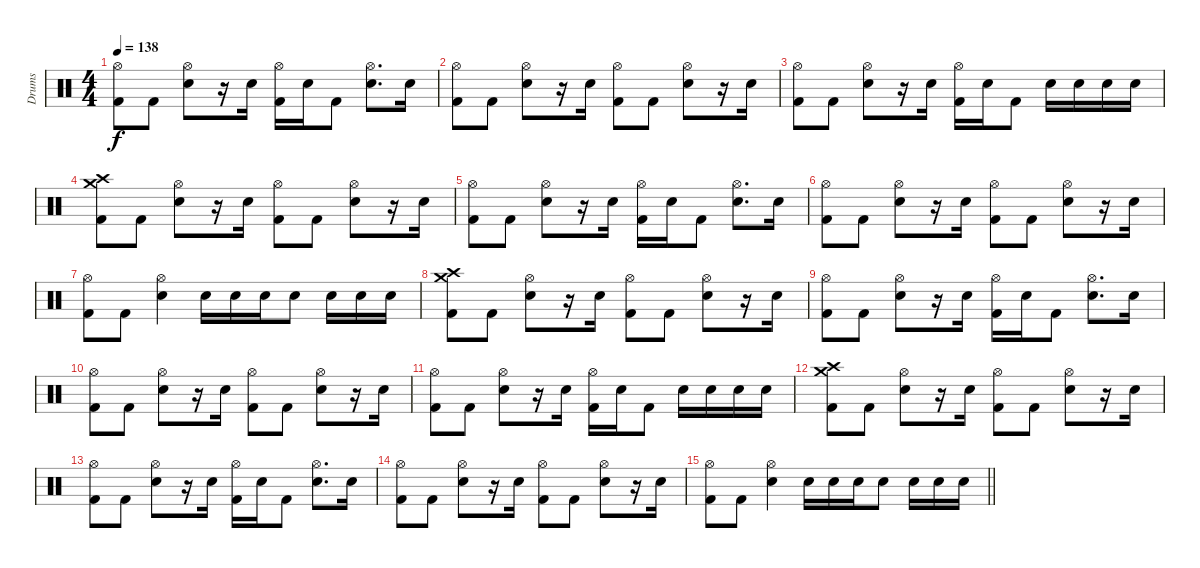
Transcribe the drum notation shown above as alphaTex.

\track ("Drums" "Drums") {instrument percussion}
\staff {score}
\articulation defaults
\ts (4 4)
\tempo 138
\clef neutral
\ks c
("Hi-Hat (open)" "Kick (hit) 2").8{dy f} "Kick (hit) 2".8 ("Hi-Hat (open)" "Electric Snare (hit)").8 r.16 "Electric Snare (hit)".16 ("Hi-Hat (open)" "Kick (hit) 2").16 "Electric Snare (hit)".16 "Kick (hit) 2".8 ("Hi-Hat (open)" "Electric Snare (hit)").8{d} "Electric Snare (hit)".16 |
("Hi-Hat (open)" "Kick (hit) 2").8 "Kick (hit) 2".8 ("Hi-Hat (open)" "Electric Snare (hit)").8 r.16 "Electric Snare (hit)".16 ("Hi-Hat (open)" "Kick (hit) 2").8 "Kick (hit) 2".8 ("Hi-Hat (open)" "Electric Snare (hit)").8 r.16 "Electric Snare (hit)".16 |
("Hi-Hat (open)" "Kick (hit) 2").8 "Kick (hit) 2".8 ("Hi-Hat (open)" "Electric Snare (hit)").8 r.16 "Electric Snare (hit)".16 ("Hi-Hat (open)" "Kick (hit) 2").16 "Electric Snare (hit)".16 "Kick (hit) 2".8 "Electric Snare (hit)".16 "Electric Snare (hit)".16 "Electric Snare (hit)".16 "Electric Snare (hit)".16 |
("Crash high (hit)" "Crash medium (hit)" "Kick (hit) 2").8 "Kick (hit) 2".8 ("Hi-Hat (open)" "Electric Snare (hit)").8 r.16 "Electric Snare (hit)".16 ("Hi-Hat (open)" "Kick (hit) 2").8 "Kick (hit) 2".8 ("Hi-Hat (open)" "Electric Snare (hit)").8 r.16 "Electric Snare (hit)".16 |
("Hi-Hat (open)" "Kick (hit) 2").8 "Kick (hit) 2".8 ("Hi-Hat (open)" "Electric Snare (hit)").8 r.16 "Electric Snare (hit)".16 ("Hi-Hat (open)" "Kick (hit) 2").16 "Electric Snare (hit)".16 "Kick (hit) 2".8 ("Hi-Hat (open)" "Electric Snare (hit)").8{d} "Electric Snare (hit)".16 |
("Hi-Hat (open)" "Kick (hit) 2").8 "Kick (hit) 2".8 ("Hi-Hat (open)" "Electric Snare (hit)").8 r.16 "Electric Snare (hit)".16 ("Hi-Hat (open)" "Kick (hit) 2").8 "Kick (hit) 2".8 ("Hi-Hat (open)" "Electric Snare (hit)").8 r.16 "Electric Snare (hit)".16 |
("Hi-Hat (open)" "Kick (hit) 2").8 "Kick (hit) 2".8 ("Hi-Hat (open)" "Electric Snare (hit)").4 "Electric Snare (hit)".16 "Electric Snare (hit)".16 "Electric Snare (hit)".16 "Electric Snare (hit)".8 "Electric Snare (hit)".16 "Electric Snare (hit)".16 "Electric Snare (hit)".16 |
("Crash high (hit)" "Crash medium (hit)" "Kick (hit) 2").8 "Kick (hit) 2".8 ("Hi-Hat (open)" "Electric Snare (hit)").8 r.16 "Electric Snare (hit)".16 ("Hi-Hat (open)" "Kick (hit) 2").8 "Kick (hit) 2".8 ("Hi-Hat (open)" "Electric Snare (hit)").8 r.16 "Electric Snare (hit)".16 |
("Hi-Hat (open)" "Kick (hit) 2").8 "Kick (hit) 2".8 ("Hi-Hat (open)" "Electric Snare (hit)").8 r.16 "Electric Snare (hit)".16 ("Hi-Hat (open)" "Kick (hit) 2").16 "Electric Snare (hit)".16 "Kick (hit) 2".8 ("Hi-Hat (open)" "Electric Snare (hit)").8{d} "Electric Snare (hit)".16 |
("Hi-Hat (open)" "Kick (hit) 2").8 "Kick (hit) 2".8 ("Hi-Hat (open)" "Electric Snare (hit)").8 r.16 "Electric Snare (hit)".16 ("Hi-Hat (open)" "Kick (hit) 2").8 "Kick (hit) 2".8 ("Hi-Hat (open)" "Electric Snare (hit)").8 r.16 "Electric Snare (hit)".16 |
("Hi-Hat (open)" "Kick (hit) 2").8 "Kick (hit) 2".8 ("Hi-Hat (open)" "Electric Snare (hit)").8 r.16 "Electric Snare (hit)".16 ("Hi-Hat (open)" "Kick (hit) 2").16 "Electric Snare (hit)".16 "Kick (hit) 2".8 "Electric Snare (hit)".16 "Electric Snare (hit)".16 "Electric Snare (hit)".16 "Electric Snare (hit)".16 |
("Crash high (hit)" "Crash medium (hit)" "Kick (hit) 2").8 "Kick (hit) 2".8 ("Hi-Hat (open)" "Electric Snare (hit)").8 r.16 "Electric Snare (hit)".16 ("Hi-Hat (open)" "Kick (hit) 2").8 "Kick (hit) 2".8 ("Hi-Hat (open)" "Electric Snare (hit)").8 r.16 "Electric Snare (hit)".16 |
("Hi-Hat (open)" "Kick (hit) 2").8 "Kick (hit) 2".8 ("Hi-Hat (open)" "Electric Snare (hit)").8 r.16 "Electric Snare (hit)".16 ("Hi-Hat (open)" "Kick (hit) 2").16 "Electric Snare (hit)".16 "Kick (hit) 2".8 ("Hi-Hat (open)" "Electric Snare (hit)").8{d} "Electric Snare (hit)".16 |
("Hi-Hat (open)" "Kick (hit) 2").8 "Kick (hit) 2".8 ("Hi-Hat (open)" "Electric Snare (hit)").8 r.16 "Electric Snare (hit)".16 ("Hi-Hat (open)" "Kick (hit) 2").8 "Kick (hit) 2".8 ("Hi-Hat (open)" "Electric Snare (hit)").8 r.16 "Electric Snare (hit)".16 |
\barLineRight lightlight
("Hi-Hat (open)" "Kick (hit) 2").8 "Kick (hit) 2".8 ("Hi-Hat (open)" "Electric Snare (hit)").4 "Electric Snare (hit)".16 "Electric Snare (hit)".16 "Electric Snare (hit)".16 "Electric Snare (hit)".8 "Electric Snare (hit)".16 "Electric Snare (hit)".16 "Electric Snare (hit)".16
